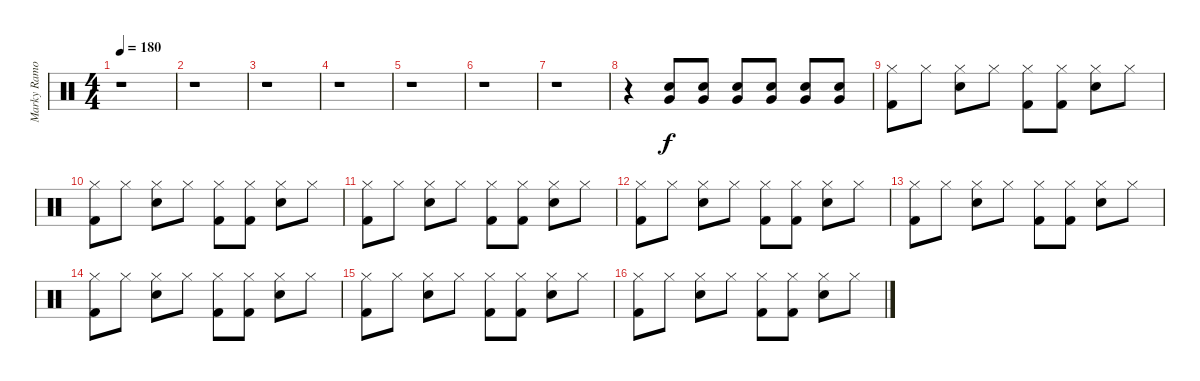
\track ("Marky Ramone" "Marky Ramo") {instrument percussion}
\staff {score}
\articulation defaults
\ts (4 4)
\tempo 180
\clef neutral
\ks c
r.1{dy f} |
r.1 |
r.1 |
r.1 |
r.1 |
r.1 |
r.1 |
r.4 ("Very Low Tom (hit)" "Electric Snare (hit)").8 ("Very Low Tom (hit)" "Electric Snare (hit)").8 ("Very Low Tom (hit)" "Electric Snare (hit)").8 ("Very Low Tom (hit)" "Electric Snare (hit)").8 ("Very Low Tom (hit)" "Electric Snare (hit)").8 ("Very Low Tom (hit)" "Electric Snare (hit)").8 |
("Kick (hit) 2" "Hi-Hat (closed)").8 "Hi-Hat (closed)".8 ("Electric Snare (hit)" "Hi-Hat (closed)").8 "Hi-Hat (closed)".8 ("Kick (hit) 2" "Hi-Hat (closed)").8 ("Kick (hit) 2" "Hi-Hat (closed)").8 ("Electric Snare (hit)" "Hi-Hat (closed)").8 "Hi-Hat (closed)".8 |
("Hi-Hat (closed)" "Kick (hit) 2").8 "Hi-Hat (closed)".8 ("Electric Snare (hit)" "Hi-Hat (closed)").8 "Hi-Hat (closed)".8 ("Hi-Hat (closed)" "Kick (hit) 2").8 ("Hi-Hat (closed)" "Kick (hit) 2").8 ("Electric Snare (hit)" "Hi-Hat (closed)").8 "Hi-Hat (closed)".8 |
("Kick (hit) 2" "Hi-Hat (closed)").8 "Hi-Hat (closed)".8 ("Electric Snare (hit)" "Hi-Hat (closed)").8 "Hi-Hat (closed)".8 ("Kick (hit) 2" "Hi-Hat (closed)").8 ("Kick (hit) 2" "Hi-Hat (closed)").8 ("Electric Snare (hit)" "Hi-Hat (closed)").8 "Hi-Hat (closed)".8 |
("Hi-Hat (closed)" "Kick (hit) 2").8 "Hi-Hat (closed)".8 ("Electric Snare (hit)" "Hi-Hat (closed)").8 "Hi-Hat (closed)".8 ("Hi-Hat (closed)" "Kick (hit) 2").8 ("Hi-Hat (closed)" "Kick (hit) 2").8 ("Electric Snare (hit)" "Hi-Hat (closed)").8 "Hi-Hat (closed)".8 |
("Kick (hit) 2" "Hi-Hat (closed)").8 "Hi-Hat (closed)".8 ("Electric Snare (hit)" "Hi-Hat (closed)").8 "Hi-Hat (closed)".8 ("Kick (hit) 2" "Hi-Hat (closed)").8 ("Kick (hit) 2" "Hi-Hat (closed)").8 ("Electric Snare (hit)" "Hi-Hat (closed)").8 "Hi-Hat (closed)".8 |
("Hi-Hat (closed)" "Kick (hit) 2").8 "Hi-Hat (closed)".8 ("Electric Snare (hit)" "Hi-Hat (closed)").8 "Hi-Hat (closed)".8 ("Hi-Hat (closed)" "Kick (hit) 2").8 ("Hi-Hat (closed)" "Kick (hit) 2").8 ("Electric Snare (hit)" "Hi-Hat (closed)").8 "Hi-Hat (closed)".8 |
("Kick (hit) 2" "Hi-Hat (closed)").8 "Hi-Hat (closed)".8 ("Electric Snare (hit)" "Hi-Hat (closed)").8 "Hi-Hat (closed)".8 ("Kick (hit) 2" "Hi-Hat (closed)").8 ("Kick (hit) 2" "Hi-Hat (closed)").8 ("Electric Snare (hit)" "Hi-Hat (closed)").8 "Hi-Hat (closed)".8 |
("Hi-Hat (closed)" "Kick (hit) 2").8 "Hi-Hat (closed)".8 ("Electric Snare (hit)" "Hi-Hat (closed)").8 "Hi-Hat (closed)".8 ("Hi-Hat (closed)" "Kick (hit) 2").8 ("Hi-Hat (closed)" "Kick (hit) 2").8 ("Electric Snare (hit)" "Hi-Hat (closed)").8 "Hi-Hat (closed)".8
